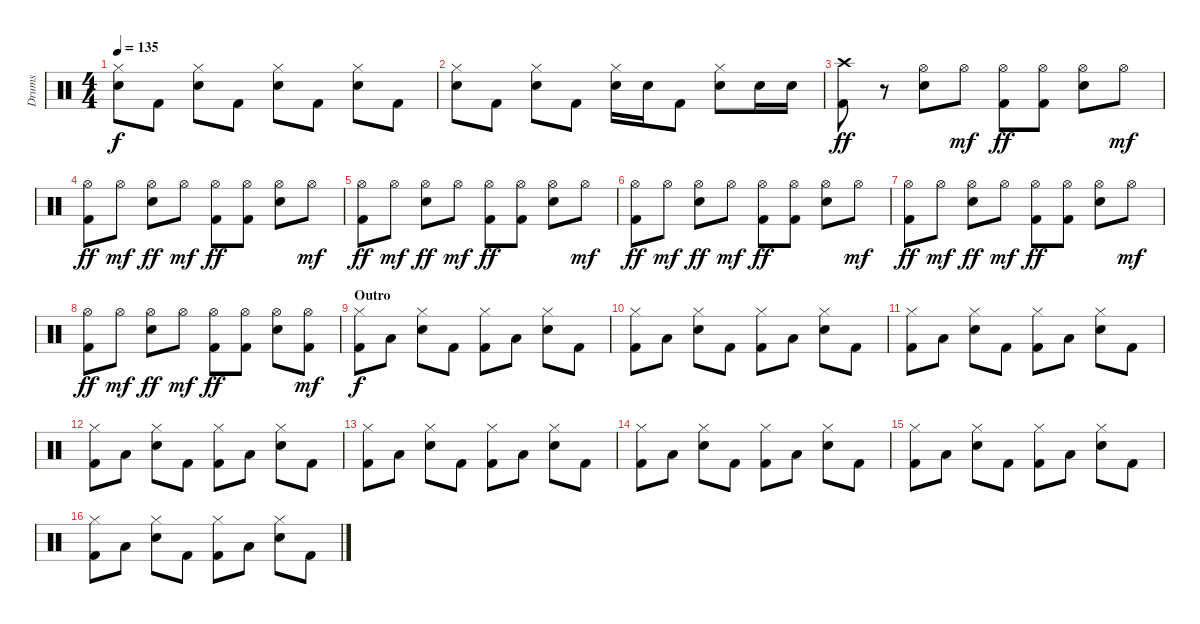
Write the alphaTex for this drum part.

\track ("Drums" "Drums") {instrument percussion}
\staff {score}
\articulation defaults
\ts (4 4)
\tempo 135
\clef neutral
\ks c
("Hi-Hat (closed)" "Snare (hit) 2").8{dy f} "Kick (hit) 2".8 ("Hi-Hat (closed)" "Snare (hit) 2").8 "Kick (hit) 2".8 ("Hi-Hat (closed)" "Snare (hit) 2").8 "Kick (hit) 2".8 ("Hi-Hat (closed)" "Snare (hit) 2").8 "Kick (hit) 2".8 |
("Hi-Hat (closed)" "Snare (hit) 2").8 "Kick (hit) 2".8 ("Hi-Hat (closed)" "Snare (hit) 2").8 "Kick (hit) 2".8 ("Hi-Hat (closed)" "Snare (hit) 2").16 "Snare (hit) 2".16 "Kick (hit) 2".8 ("Hi-Hat (closed)" "Snare (hit) 2").8 "Snare (hit) 2".16 "Snare (hit) 2".16 |
("Crash high (hit)" "Kick (hit) 2").8{dy ff} r.8 ("Hi-Hat (open)" "Snare (hit) 2").8 "Hi-Hat (open)".8{dy mf} ("Hi-Hat (open)" "Kick (hit) 2").8{dy ff} ("Hi-Hat (open)" "Kick (hit) 2").8 ("Hi-Hat (open)" "Snare (hit) 2").8 "Hi-Hat (open)".8{dy mf} |
("Hi-Hat (open)" "Kick (hit) 2").8{dy ff} "Hi-Hat (open)".8{dy mf} ("Hi-Hat (open)" "Snare (hit) 2").8{dy ff} "Hi-Hat (open)".8{dy mf} ("Hi-Hat (open)" "Kick (hit) 2").8{dy ff} ("Hi-Hat (open)" "Kick (hit) 2").8 ("Hi-Hat (open)" "Snare (hit) 2").8 "Hi-Hat (open)".8{dy mf} |
("Hi-Hat (open)" "Kick (hit) 2").8{dy ff} "Hi-Hat (open)".8{dy mf} ("Hi-Hat (open)" "Snare (hit) 2").8{dy ff} "Hi-Hat (open)".8{dy mf} ("Hi-Hat (open)" "Kick (hit) 2").8{dy ff} ("Hi-Hat (open)" "Kick (hit) 2").8 ("Hi-Hat (open)" "Snare (hit) 2").8 "Hi-Hat (open)".8{dy mf} |
("Hi-Hat (open)" "Kick (hit) 2").8{dy ff} "Hi-Hat (open)".8{dy mf} ("Hi-Hat (open)" "Snare (hit) 2").8{dy ff} "Hi-Hat (open)".8{dy mf} ("Hi-Hat (open)" "Kick (hit) 2").8{dy ff} ("Hi-Hat (open)" "Kick (hit) 2").8 ("Hi-Hat (open)" "Snare (hit) 2").8 "Hi-Hat (open)".8{dy mf} |
("Hi-Hat (open)" "Kick (hit) 2").8{dy ff} "Hi-Hat (open)".8{dy mf} ("Hi-Hat (open)" "Snare (hit) 2").8{dy ff} "Hi-Hat (open)".8{dy mf} ("Hi-Hat (open)" "Kick (hit) 2").8{dy ff} ("Hi-Hat (open)" "Kick (hit) 2").8 ("Hi-Hat (open)" "Snare (hit) 2").8 "Hi-Hat (open)".8{dy mf} |
("Hi-Hat (open)" "Kick (hit) 2").8{dy ff} "Hi-Hat (open)".8{dy mf} ("Hi-Hat (open)" "Snare (hit) 2").8{dy ff} "Hi-Hat (open)".8{dy mf} ("Hi-Hat (open)" "Kick (hit) 2").8{dy ff} ("Hi-Hat (open)" "Kick (hit) 2").8 ("Hi-Hat (open)" "Snare (hit) 2").8 ("Hi-Hat (open)" "Kick (hit) 2").8{dy mf} |
\section ("" "Outro")
("Hi-Hat (closed)" "Kick (hit) 2").8{dy f} "Low Floor Tom (hit)".8 ("Hi-Hat (closed)" "Snare (hit) 2").8 "Kick (hit) 2".8 ("Hi-Hat (closed)" "Kick (hit) 2").8 "Low Floor Tom (hit)".8 ("Hi-Hat (closed)" "Snare (hit) 2").8 "Kick (hit) 2".8 |
("Hi-Hat (closed)" "Kick (hit) 2").8 "Low Floor Tom (hit)".8 ("Hi-Hat (closed)" "Snare (hit) 2").8 "Kick (hit) 2".8 ("Hi-Hat (closed)" "Kick (hit) 2").8 "Low Floor Tom (hit)".8 ("Hi-Hat (closed)" "Snare (hit) 2").8 "Kick (hit) 2".8 |
("Hi-Hat (closed)" "Kick (hit) 2").8 "Low Floor Tom (hit)".8 ("Hi-Hat (closed)" "Snare (hit) 2").8 "Kick (hit) 2".8 ("Hi-Hat (closed)" "Kick (hit) 2").8 "Low Floor Tom (hit)".8 ("Hi-Hat (closed)" "Snare (hit) 2").8 "Kick (hit) 2".8 |
("Hi-Hat (closed)" "Kick (hit) 2").8 "Low Floor Tom (hit)".8 ("Hi-Hat (closed)" "Snare (hit) 2").8 "Kick (hit) 2".8 ("Hi-Hat (closed)" "Kick (hit) 2").8 "Low Floor Tom (hit)".8 ("Hi-Hat (closed)" "Snare (hit) 2").8 "Kick (hit) 2".8 |
("Hi-Hat (closed)" "Kick (hit) 2").8 "Low Floor Tom (hit)".8 ("Hi-Hat (closed)" "Snare (hit) 2").8 "Kick (hit) 2".8 ("Hi-Hat (closed)" "Kick (hit) 2").8 "Low Floor Tom (hit)".8 ("Hi-Hat (closed)" "Snare (hit) 2").8 "Kick (hit) 2".8 |
("Hi-Hat (closed)" "Kick (hit) 2").8 "Low Floor Tom (hit)".8 ("Hi-Hat (closed)" "Snare (hit) 2").8 "Kick (hit) 2".8 ("Hi-Hat (closed)" "Kick (hit) 2").8 "Low Floor Tom (hit)".8 ("Hi-Hat (closed)" "Snare (hit) 2").8 "Kick (hit) 2".8 |
("Hi-Hat (closed)" "Kick (hit) 2").8 "Low Floor Tom (hit)".8 ("Hi-Hat (closed)" "Snare (hit) 2").8 "Kick (hit) 2".8 ("Hi-Hat (closed)" "Kick (hit) 2").8 "Low Floor Tom (hit)".8 ("Hi-Hat (closed)" "Snare (hit) 2").8 "Kick (hit) 2".8 |
("Hi-Hat (closed)" "Kick (hit) 2").8 "Low Floor Tom (hit)".8 ("Hi-Hat (closed)" "Snare (hit) 2").8 "Kick (hit) 2".8 ("Hi-Hat (closed)" "Kick (hit) 2").8 "Low Floor Tom (hit)".8 ("Hi-Hat (closed)" "Snare (hit) 2").8 "Kick (hit) 2".8
